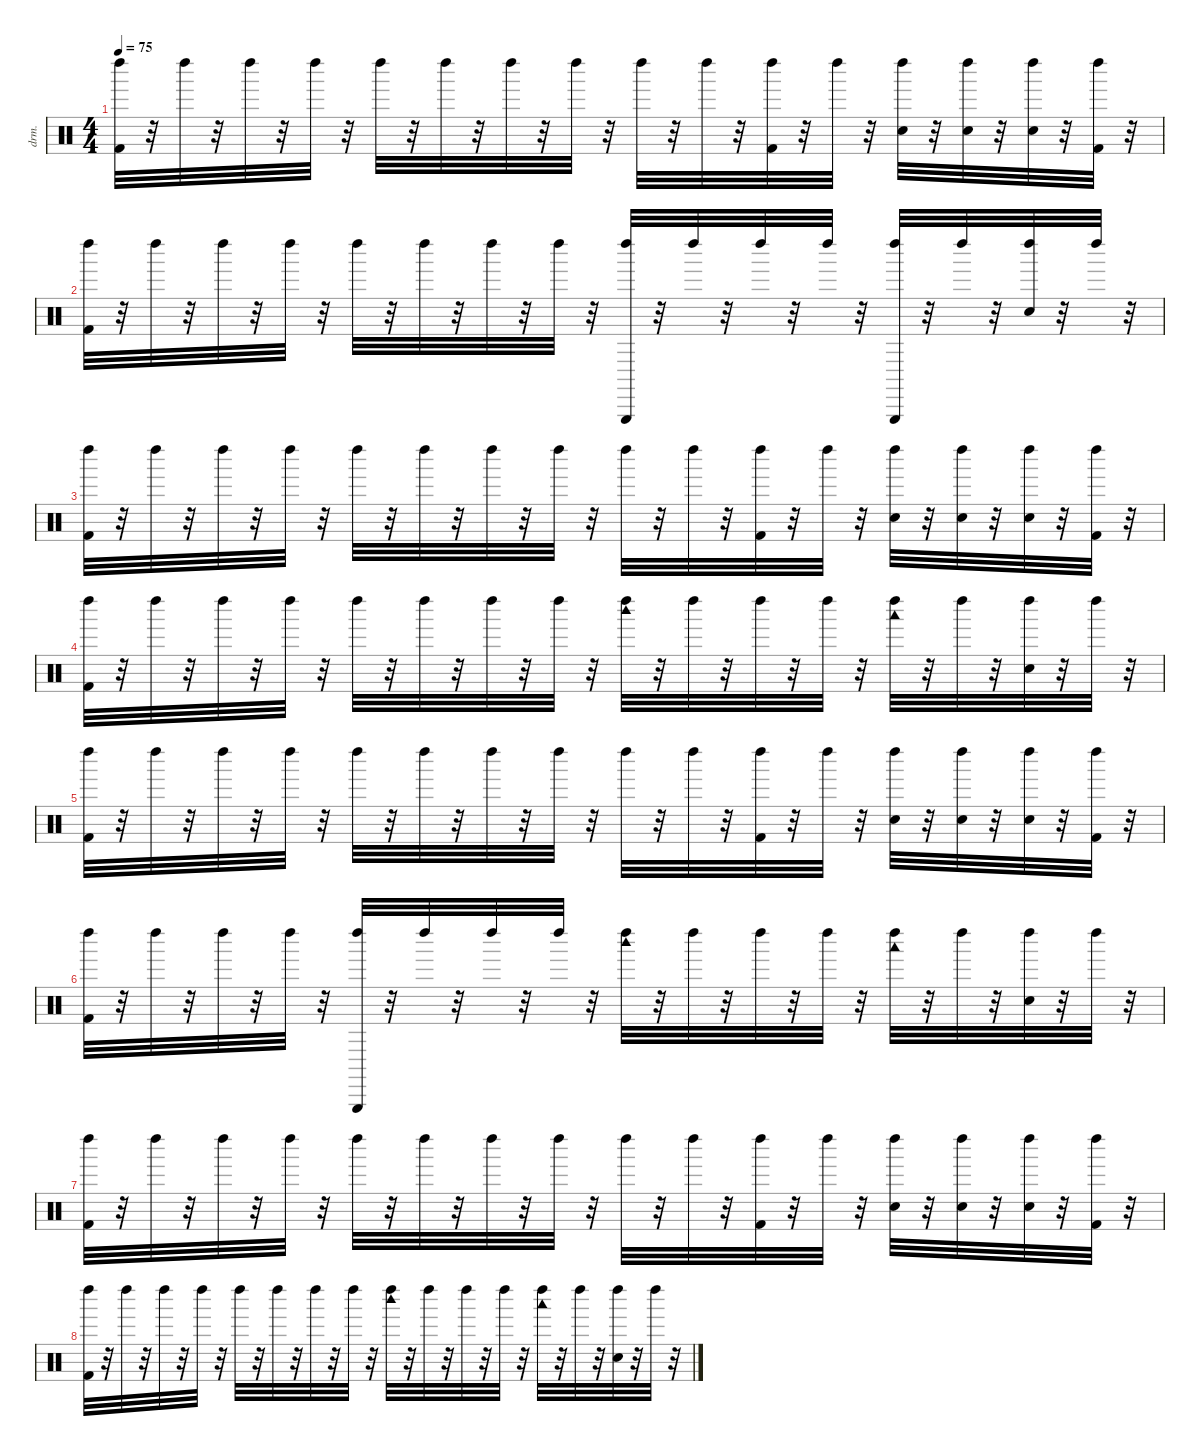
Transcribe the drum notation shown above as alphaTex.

\defaultSystemsLayout 4
\hideDynamics
\bracketExtendMode nobrackets
\otherSystemsTrackNameOrientation horizontal
\track ("Drums" "drm.") {instrument percussion}
\staff {score}
\articulation defaults
\ts (4 4)
\beaming (8 2 2 2 2)
\tempo 75
\clef neutral
\ks c
("Kick (hit) 2" "Left Maraca (hit)").32{dy f} r.32 "Left Maraca (hit)".32 r.32 "Left Maraca (hit)".32 r.32 "Left Maraca (hit)".32 r.32 "Left Maraca (hit)".32 r.32 "Left Maraca (hit)".32 r.32 "Left Maraca (hit)".32 r.32 "Left Maraca (hit)".32 r.32 "Left Maraca (hit)".32 r.32 "Left Maraca (hit)".32 r.32 ("Kick (hit) 2" "Left Maraca (hit)").32 r.32 "Left Maraca (hit)".32 r.32 ("Snare (hit) 2" "Left Maraca (hit)").32 r.32 ("Snare (hit) 2" "Left Maraca (hit)").32 r.32 ("Snare (hit) 2" "Left Maraca (hit)").32 r.32 ("Kick (hit) 2" "Left Maraca (hit)").32 r.32 |
("Kick (hit) 2" "Left Maraca (hit)").32 r.32 "Left Maraca (hit)".32 r.32 "Left Maraca (hit)".32 r.32 "Left Maraca (hit)".32 r.32 "Left Maraca (hit)".32 r.32 "Left Maraca (hit)".32 r.32 "Left Maraca (hit)".32 r.32 "Left Maraca (hit)".32 r.32 ("Triangle (hit)" "Left Maraca (hit)").32 r.32 "Left Maraca (hit)".32 r.32 "Left Maraca (hit)".32 r.32 "Left Maraca (hit)".32 r.32 ("Triangle (hit)" "Left Maraca (hit)").32 r.32 "Left Maraca (hit)".32 r.32 ("Hand Clap (hit)" "Left Maraca (hit)").32 r.32 "Left Maraca (hit)".32 r.32 |
("Kick (hit) 2" "Left Maraca (hit)").32 r.32 "Left Maraca (hit)".32 r.32 "Left Maraca (hit)".32 r.32 "Left Maraca (hit)".32 r.32 "Left Maraca (hit)".32 r.32 "Left Maraca (hit)".32 r.32 "Left Maraca (hit)".32 r.32 "Left Maraca (hit)".32 r.32 "Left Maraca (hit)".32 r.32 "Left Maraca (hit)".32 r.32 ("Kick (hit) 2" "Left Maraca (hit)").32 r.32 "Left Maraca (hit)".32 r.32 ("Snare (hit) 2" "Left Maraca (hit)").32 r.32 ("Snare (hit) 2" "Left Maraca (hit)").32 r.32 ("Snare (hit) 2" "Left Maraca (hit)").32 r.32 ("Kick (hit) 2" "Left Maraca (hit)").32 r.32 |
("Kick (hit) 2" "Left Maraca (hit)").32 r.32 "Left Maraca (hit)".32 r.32 "Left Maraca (hit)".32 r.32 "Left Maraca (hit)".32 r.32 "Left Maraca (hit)".32 r.32 "Left Maraca (hit)".32 r.32 "Left Maraca (hit)".32 r.32 "Left Maraca (hit)".32 r.32 ("Woodblock high (hit)" "Left Maraca (hit)").32 r.32 "Left Maraca (hit)".32 r.32 "Left Maraca (hit)".32 r.32 "Left Maraca (hit)".32 r.32 ("Woodblock low (hit)" "Left Maraca (hit)").32 r.32 "Left Maraca (hit)".32 r.32 ("Hand Clap (hit)" "Left Maraca (hit)").32 r.32 "Left Maraca (hit)".32 r.32 |
("Kick (hit) 2" "Left Maraca (hit)").32 r.32 "Left Maraca (hit)".32 r.32 "Left Maraca (hit)".32 r.32 "Left Maraca (hit)".32 r.32 "Left Maraca (hit)".32 r.32 "Left Maraca (hit)".32 r.32 "Left Maraca (hit)".32 r.32 "Left Maraca (hit)".32 r.32 "Left Maraca (hit)".32 r.32 "Left Maraca (hit)".32 r.32 ("Kick (hit) 2" "Left Maraca (hit)").32 r.32 "Left Maraca (hit)".32 r.32 ("Snare (hit) 2" "Left Maraca (hit)").32 r.32 ("Snare (hit) 2" "Left Maraca (hit)").32 r.32 ("Snare (hit) 2" "Left Maraca (hit)").32 r.32 ("Kick (hit) 2" "Left Maraca (hit)").32 r.32 |
("Kick (hit) 2" "Left Maraca (hit)").32 r.32 "Left Maraca (hit)".32 r.32 "Left Maraca (hit)".32 r.32 "Left Maraca (hit)".32 r.32 ("Triangle (hit)" "Left Maraca (hit)").32 r.32 "Left Maraca (hit)".32 r.32 "Left Maraca (hit)".32 r.32 "Left Maraca (hit)".32 r.32 ("Woodblock high (hit)" "Left Maraca (hit)").32 r.32 "Left Maraca (hit)".32 r.32 "Left Maraca (hit)".32 r.32 "Left Maraca (hit)".32 r.32 ("Woodblock low (hit)" "Left Maraca (hit)").32 r.32 "Left Maraca (hit)".32 r.32 ("Hand Clap (hit)" "Left Maraca (hit)").32 r.32 "Left Maraca (hit)".32 r.32 |
("Kick (hit) 2" "Left Maraca (hit)").32 r.32 "Left Maraca (hit)".32 r.32 "Left Maraca (hit)".32 r.32 "Left Maraca (hit)".32 r.32 "Left Maraca (hit)".32 r.32 "Left Maraca (hit)".32 r.32 "Left Maraca (hit)".32 r.32 "Left Maraca (hit)".32 r.32 "Left Maraca (hit)".32 r.32 "Left Maraca (hit)".32 r.32 ("Kick (hit) 2" "Left Maraca (hit)").32 r.32 "Left Maraca (hit)".32 r.32 ("Snare (hit) 2" "Left Maraca (hit)").32 r.32 ("Snare (hit) 2" "Left Maraca (hit)").32 r.32 ("Snare (hit) 2" "Left Maraca (hit)").32 r.32 ("Kick (hit) 2" "Left Maraca (hit)").32 r.32 |
("Kick (hit) 2" "Left Maraca (hit)").32 r.32 "Left Maraca (hit)".32 r.32 "Left Maraca (hit)".32 r.32 "Left Maraca (hit)".32 r.32 "Left Maraca (hit)".32 r.32 "Left Maraca (hit)".32 r.32 "Left Maraca (hit)".32 r.32 "Left Maraca (hit)".32 r.32 ("Woodblock high (hit)" "Left Maraca (hit)").32 r.32 "Left Maraca (hit)".32 r.32 "Left Maraca (hit)".32 r.32 "Left Maraca (hit)".32 r.32 ("Woodblock low (hit)" "Left Maraca (hit)").32 r.32 "Left Maraca (hit)".32 r.32 ("Hand Clap (hit)" "Left Maraca (hit)").32 r.32 "Left Maraca (hit)".32 r.32
